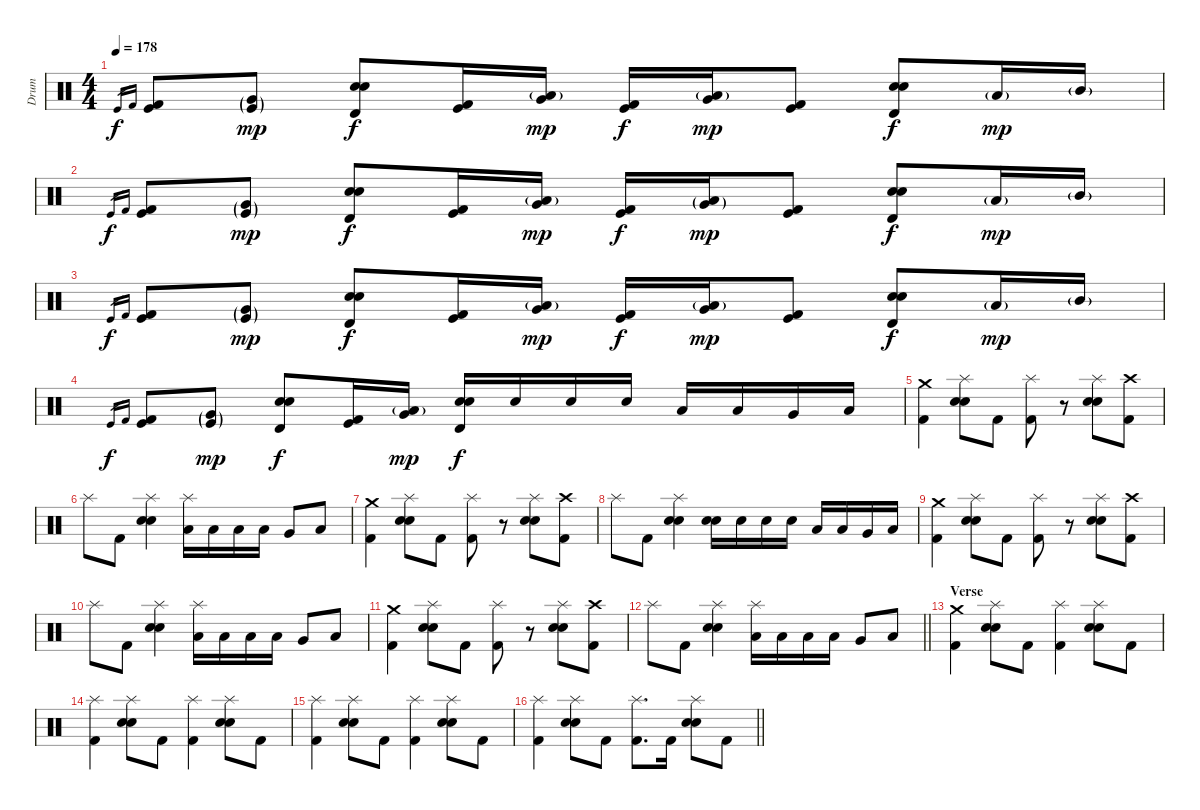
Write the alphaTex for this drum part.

\track ("Drum" "Drum") {instrument percussion}
\staff {score}
\articulation defaults
\ts (4 4)
\tempo 178
\clef neutral
\ks c "Kick (hit)".16{gr dy f} "Kick (hit) 2".16{gr}
("Kick (hit)" "Kick (hit) 2").8 ("Very Low Tom (hit)"{g} "Kick (hit)"{g}).8{dy mp} ("Timbale high (hit)" "Electric Snare (hit)" "Snare (hit) 2").8{dy f} ("Kick (hit)" "Kick (hit) 2").16 ("Low Tom (hit)"{g} "Very Low Tom (hit)").16{dy mp} ("Kick (hit)" "Kick (hit) 2").16{dy f} ("Low Tom (hit)"{g} "Very Low Tom (hit)").16{dy mp} ("Kick (hit)" "Kick (hit) 2").8 ("Timbale high (hit)" "Electric Snare (hit)" "Snare (hit) 2").8{dy f} "Low Tom (hit)"{g}.16{dy mp} "Mid Tom (hit)"{g}.16 |
"Kick (hit)".16{gr dy f} "Kick (hit) 2".16{gr} ("Kick (hit)" "Kick (hit) 2").8 ("Very Low Tom (hit)"{g} "Kick (hit)"{g}).8{dy mp} ("Timbale high (hit)" "Electric Snare (hit)" "Snare (hit) 2").8{dy f} ("Kick (hit)" "Kick (hit) 2").16 ("Low Tom (hit)"{g} "Very Low Tom (hit)").16{dy mp} ("Kick (hit)" "Kick (hit) 2").16{dy f} ("Low Tom (hit)"{g} "Very Low Tom (hit)"{g}).16{dy mp} ("Kick (hit)" "Kick (hit) 2").8 ("Timbale high (hit)" "Electric Snare (hit)" "Snare (hit) 2").8{dy f} "Low Tom (hit)"{g}.16{dy mp} "Mid Tom (hit)"{g}.16 |
"Kick (hit)".16{gr dy f} "Kick (hit) 2".16{gr} ("Kick (hit)" "Kick (hit) 2").8 ("Very Low Tom (hit)"{g} "Kick (hit)"{g}).8{dy mp} ("Timbale high (hit)" "Electric Snare (hit)" "Snare (hit) 2").8{dy f} ("Kick (hit)" "Kick (hit) 2").16 ("Low Tom (hit)"{g} "Very Low Tom (hit)").16{dy mp} ("Kick (hit)" "Kick (hit) 2").16{dy f} ("Low Tom (hit)"{g} "Very Low Tom (hit)").16{dy mp} ("Kick (hit)" "Kick (hit) 2").8 ("Timbale high (hit)" "Electric Snare (hit)" "Snare (hit) 2").8{dy f} "Low Tom (hit)"{g}.16{dy mp} "Mid Tom (hit)"{g}.16 |
"Kick (hit)".16{gr dy f} "Kick (hit) 2".16{gr} ("Kick (hit)" "Kick (hit) 2").8 ("Very Low Tom (hit)"{g} "Kick (hit)"{g}).8{dy mp} ("Timbale high (hit)" "Electric Snare (hit)" "Snare (hit) 2").8{dy f} ("Kick (hit)" "Kick (hit) 2").16 ("Low Tom (hit)"{g} "Very Low Tom (hit)").16{dy mp} ("Timbale high (hit)" "Electric Snare (hit)" "Snare (hit) 2").16{dy f} "Electric Snare (hit)".16 "Electric Snare (hit)".16 "Electric Snare (hit)".16 "Low Tom (hit)".16 "Low Tom (hit)".16 "Very Low Tom (hit)".16 "Low Floor Tom (hit)".16 |
("Crash medium (hit)" "Kick (hit) 2").4 ("Splash (hit)" "Electric Snare (hit)" "Snare (hit) 2").8 "Kick (hit) 2".8 ("Splash (hit)" "Kick (hit) 2").8 r.8 ("Splash (hit)" "Electric Snare (hit)" "Snare (hit) 2").8 ("Crash high (hit)" "Kick (hit) 2").8 |
"Splash (hit)".8 "Kick (hit) 2".8 ("Splash (hit)" "Electric Snare (hit)" "Snare (hit) 2").4 ("Splash (hit)" "Low Tom (hit)").16 "Low Tom (hit)".16 "Low Tom (hit)".16 "Low Tom (hit)".16 "Very Low Tom (hit)".8 "Low Floor Tom (hit)".8 |
("Crash medium (hit)" "Kick (hit) 2").4 ("Splash (hit)" "Electric Snare (hit)" "Snare (hit) 2").8 "Kick (hit) 2".8 ("Splash (hit)" "Kick (hit) 2").8 r.8 ("Splash (hit)" "Electric Snare (hit)" "Snare (hit) 2").8 ("Crash high (hit)" "Kick (hit) 2").8 |
"Splash (hit)".8 "Kick (hit) 2".8 ("Splash (hit)" "Electric Snare (hit)" "Snare (hit) 2").4 ("Electric Snare (hit)" "Snare (hit) 2").16 "Electric Snare (hit)".16 "Electric Snare (hit)".16 "Electric Snare (hit)".16 "Low Tom (hit)".16 "Low Tom (hit)".16 "Very Low Tom (hit)".16 "Low Floor Tom (hit)".16 |
("Crash medium (hit)" "Kick (hit) 2").4 ("Splash (hit)" "Electric Snare (hit)" "Snare (hit) 2").8 "Kick (hit) 2".8 ("Splash (hit)" "Kick (hit) 2").8 r.8 ("Splash (hit)" "Electric Snare (hit)" "Snare (hit) 2").8 ("Crash high (hit)" "Kick (hit) 2").8 |
"Splash (hit)".8 "Kick (hit) 2".8 ("Splash (hit)" "Electric Snare (hit)" "Snare (hit) 2").4 ("Splash (hit)" "Low Tom (hit)").16 "Low Tom (hit)".16 "Low Tom (hit)".16 "Low Tom (hit)".16 "Very Low Tom (hit)".8 "Low Floor Tom (hit)".8 |
("Crash medium (hit)" "Kick (hit) 2").4 ("Splash (hit)" "Electric Snare (hit)" "Snare (hit) 2").8 "Kick (hit) 2".8 ("Splash (hit)" "Kick (hit) 2").8 r.8 ("Splash (hit)" "Electric Snare (hit)" "Snare (hit) 2").8 ("Crash high (hit)" "Kick (hit) 2").8 |
\barLineRight lightlight "Splash (hit)".8 "Kick (hit) 2".8
("Splash (hit)" "Electric Snare (hit)" "Snare (hit) 2").4 ("Splash (hit)" "Low Tom (hit)").16 "Low Tom (hit)".16 "Low Tom (hit)".16 "Low Tom (hit)".16 "Very Low Tom (hit)".8 "Low Floor Tom (hit)".8 |
\section ("" "Verse")
("Crash medium (hit)" "Kick (hit) 2").4 ("Splash (hit)" "Electric Snare (hit)" "Snare (hit) 2").8 "Kick (hit) 2".8 ("Splash (hit)" "Kick (hit) 2").4 ("Splash (hit)" "Electric Snare (hit)" "Snare (hit) 2").8 "Kick (hit) 2".8 |
("Splash (hit)" "Kick (hit) 2").4 ("Splash (hit)" "Electric Snare (hit)" "Snare (hit) 2").8 "Kick (hit) 2".8 ("Splash (hit)" "Kick (hit) 2").4 ("Splash (hit)" "Electric Snare (hit)" "Snare (hit) 2").8 "Kick (hit) 2".8 |
("Splash (hit)" "Kick (hit) 2").4 ("Splash (hit)" "Electric Snare (hit)" "Snare (hit) 2").8 "Kick (hit) 2".8 ("Splash (hit)" "Kick (hit) 2").4 ("Splash (hit)" "Electric Snare (hit)" "Snare (hit) 2").8 "Kick (hit) 2".8 |
\barLineRight lightlight
("Splash (hit)" "Kick (hit) 2").4 ("Splash (hit)" "Electric Snare (hit)" "Snare (hit) 2").8 "Kick (hit) 2".8 ("Splash (hit)" "Kick (hit) 2").8{d} "Kick (hit) 2".16 ("Splash (hit)" "Electric Snare (hit)" "Snare (hit) 2").8 "Kick (hit) 2".8
